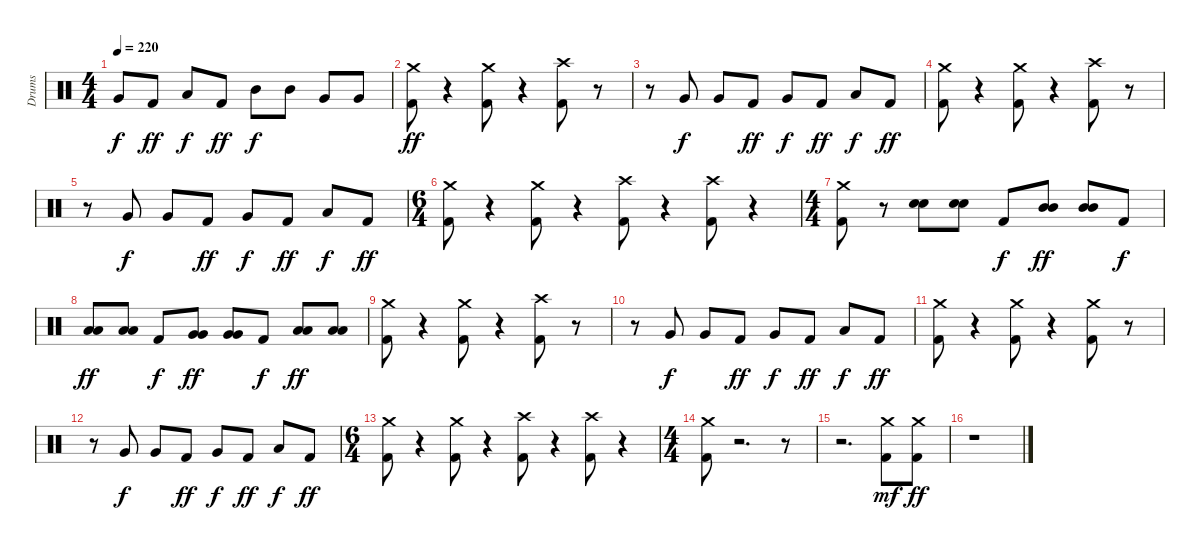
\track ("Drums" "Drums") {instrument percussion}
\staff {score}
\articulation defaults
\ts (4 4)
\tempo 220
\clef neutral
\ks c "Very Low Tom (hit)".8{dy f} "Kick (hit) 2".8{dy ff} "Low Floor Tom (hit)".8{dy f} "Kick (hit) 2".8{dy ff} "Mid Tom (hit)".8{dy f} "Mid Tom (hit)".8 "Very Low Tom (hit)".8 "Very Low Tom (hit)".8
|
("Kick (hit) 2" "Crash medium (hit)").8{dy ff} r.4 ("Kick (hit) 2" "Crash medium (hit)").8 r.4 ("Kick (hit) 2" "Crash high (hit)").8 r.8 |
r.8 "Very Low Tom (hit)".8{dy f} "Very Low Tom (hit)".8 "Kick (hit) 2".8{dy ff} "Very Low Tom (hit)".8{dy f} "Kick (hit) 2".8{dy ff} "Low Floor Tom (hit)".8{dy f} "Kick (hit) 2".8{dy ff} |
("Kick (hit) 2" "Crash medium (hit)").8 r.4 ("Kick (hit) 2" "Crash medium (hit)").8 r.4 ("Kick (hit) 2" "Crash high (hit)").8 r.8 |
r.8 "Very Low Tom (hit)".8{dy f} "Very Low Tom (hit)".8 "Kick (hit) 2".8{dy ff} "Very Low Tom (hit)".8{dy f} "Kick (hit) 2".8{dy ff} "Low Floor Tom (hit)".8{dy f} "Kick (hit) 2".8{dy ff} |
\ts (6 4)
("Kick (hit) 2" "Crash medium (hit)").8 r.4 ("Kick (hit) 2" "Crash medium (hit)").8 r.4 ("Kick (hit) 2" "Crash high (hit)").8 r.4 ("Kick (hit) 2" "Crash high (hit)").8 r.4 |
\ts (4 4)
("Kick (hit) 2" "Crash medium (hit)").8 r.8 ("Electric Snare (hit)" "Electric Snare (hit)").8 ("Electric Snare (hit)" "Electric Snare (hit)").8 "Kick (hit) 2".8{dy f} ("Mid Tom (hit)" "Mid Tom (hit)").8{dy ff} ("Mid Tom (hit)" "Mid Tom (hit)").8 "Kick (hit) 2".8{dy f} |
("Low Tom (hit)" "Low Tom (hit)").8{dy ff} ("Low Tom (hit)" "Low Tom (hit)").8 "Kick (hit) 2".8{dy f} ("Very Low Tom (hit)" "Very Low Tom (hit)").8{dy ff} ("Very Low Tom (hit)" "Very Low Tom (hit)").8 "Kick (hit) 2".8{dy f} ("Low Floor Tom (hit)" "Low Floor Tom (hit)").8{dy ff} ("Low Floor Tom (hit)" "Low Floor Tom (hit)").8 |
("Kick (hit) 2" "Crash medium (hit)").8 r.4 ("Kick (hit) 2" "Crash medium (hit)").8 r.4 ("Kick (hit) 2" "Crash high (hit)").8 r.8 |
r.8 "Very Low Tom (hit)".8{dy f} "Very Low Tom (hit)".8 "Kick (hit) 2".8{dy ff} "Very Low Tom (hit)".8{dy f} "Kick (hit) 2".8{dy ff} "Low Floor Tom (hit)".8{dy f} "Kick (hit) 2".8{dy ff} |
("Kick (hit) 2" "Crash medium (hit)").8 r.4 ("Kick (hit) 2" "Crash medium (hit)").8 r.4 ("Kick (hit) 2" "Crash medium (hit)").8 r.8 |
r.8 "Very Low Tom (hit)".8{dy f} "Very Low Tom (hit)".8 "Kick (hit) 2".8{dy ff} "Very Low Tom (hit)".8{dy f} "Kick (hit) 2".8{dy ff} "Low Floor Tom (hit)".8{dy f} "Kick (hit) 2".8{dy ff} |
\ts (6 4)
("Kick (hit) 2" "Crash medium (hit)").8 r.4 ("Kick (hit) 2" "Crash medium (hit)").8 r.4 ("Kick (hit) 2" "Crash high (hit)").8 r.4 ("Kick (hit) 2" "Crash high (hit)").8 r.4 |
\ts (4 4)
("Kick (hit) 2" "Crash medium (hit)").8 r.2{d} r.8 |
r.2{d} ("Kick (hit) 2" "Crash medium (hit)").8{dy mf} ("Kick (hit) 2" "Crash medium (hit)").8{dy ff} |
r.1
